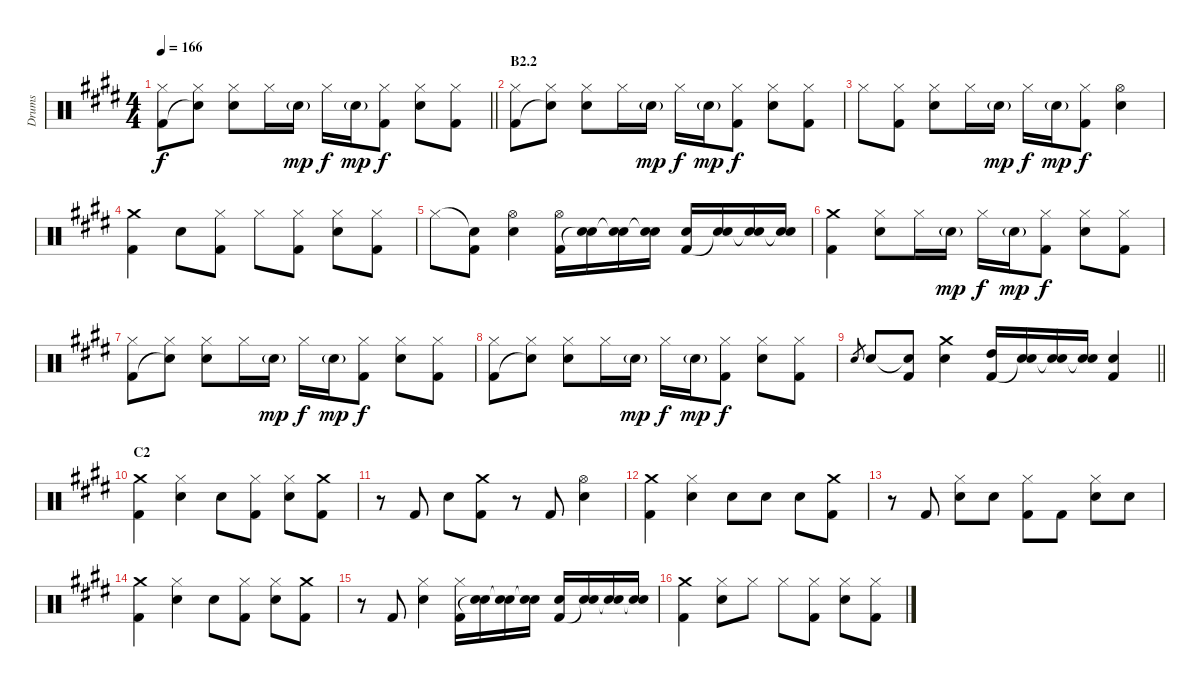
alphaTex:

\track ("Drums" "Drums") {instrument percussion}
\staff {score}
\articulation defaults
\ts (4 4)
\tempo 166
\clef neutral
\barLineRight lightlight
\ks e
("Hi-Hat (closed)" "Kick (hit) 2").8{dy f} ("Hi-Hat (closed)" "Snare (hit)"{t}).8 ("Hi-Hat (closed)" "Snare (hit) 2").8 "Hi-Hat (closed)".16 "Snare (hit) 2"{g}.16{dy mp} "Hi-Hat (closed)".16{dy f} "Snare (hit) 2"{g}.16{dy mp} ("Hi-Hat (closed)" "Kick (hit) 2").8{dy f} ("Hi-Hat (closed)" "Snare (hit) 2").8 ("Hi-Hat (closed)" "Kick (hit) 2").8 |
\section ("" "B2.2")
("Hi-Hat (closed)" "Kick (hit) 2").8 ("Hi-Hat (closed)" "Snare (hit)"{t}).8 ("Hi-Hat (closed)" "Snare (hit) 2").8 "Hi-Hat (closed)".16 "Snare (hit) 2"{g}.16{dy mp} "Hi-Hat (closed)".16{dy f} "Snare (hit) 2"{g}.16{dy mp} ("Hi-Hat (closed)" "Kick (hit) 2").8{dy f} ("Hi-Hat (closed)" "Snare (hit) 2").8 ("Hi-Hat (closed)" "Kick (hit) 2").8 |
"Hi-Hat (closed)".8 ("Hi-Hat (closed)" "Kick (hit) 2").8 ("Hi-Hat (closed)" "Snare (hit) 2").8 "Hi-Hat (closed)".16 "Snare (hit) 2"{g}.16{dy mp} "Hi-Hat (closed)".16{dy f} "Snare (hit) 2"{g}.16{dy mp} ("Hi-Hat (closed)" "Kick (hit) 2").8{dy f} ("Hi-Hat (open)" "Snare (hit) 2").4 |
("Crash medium (hit)" "Kick (hit) 2").4 "Snare (hit) 2".8 ("Hi-Hat (closed)" "Kick (hit) 2").8 "Hi-Hat (closed)".8 ("Hi-Hat (closed)" "Kick (hit) 2").8 ("Hi-Hat (closed)" "Snare (hit) 2").8 ("Hi-Hat (closed)" "Kick (hit) 2").8 |
"Hi-Hat (closed)".8 ("Snare (hit)"{t} "Kick (hit) 2").8 ("Hi-Hat (open)" "Snare (hit) 2").4 ("Hi-Hat (open)" "Kick (hit) 2").16 ("Snare (hit) 2" "Snare (hit)"{t}).16 ("Snare (hit) 2" "Snare (hit)"{t}).16 ("Snare (hit) 2" "Snare (hit)"{t}).16 ("Snare (hit) 2" "Kick (hit) 2").16 ("Snare (hit) 2" "Snare (hit)"{t}).16 ("Snare (hit) 2" "Snare (hit)"{t}).16 ("Snare (hit) 2" "Snare (hit)"{t}).16 |
("Crash medium (hit)" "Kick (hit) 2").4 ("Hi-Hat (closed)" "Snare (hit) 2").8 "Hi-Hat (closed)".16 "Snare (hit) 2"{g}.16{dy mp} "Hi-Hat (closed)".16{dy f} "Snare (hit) 2"{g}.16{dy mp} ("Hi-Hat (closed)" "Kick (hit) 2").8{dy f} ("Hi-Hat (closed)" "Snare (hit) 2").8 ("Hi-Hat (closed)" "Kick (hit) 2").8 |
("Hi-Hat (closed)" "Kick (hit) 2").8 ("Hi-Hat (closed)" "Snare (hit)"{t}).8 ("Hi-Hat (closed)" "Snare (hit) 2").8 "Hi-Hat (closed)".16 "Snare (hit) 2"{g}.16{dy mp} "Hi-Hat (closed)".16{dy f} "Snare (hit) 2"{g}.16{dy mp} ("Hi-Hat (closed)" "Kick (hit) 2").8{dy f} ("Hi-Hat (closed)" "Snare (hit) 2").8 ("Hi-Hat (closed)" "Kick (hit) 2").8 |
("Hi-Hat (closed)" "Kick (hit) 2").8 ("Hi-Hat (closed)" "Snare (hit)"{t}).8 ("Hi-Hat (closed)" "Snare (hit) 2").8 "Hi-Hat (closed)".16 "Snare (hit) 2"{g}.16{dy mp} "Hi-Hat (closed)".16{dy f} "Snare (hit) 2"{g}.16{dy mp} ("Hi-Hat (closed)" "Kick (hit) 2").8{dy f} ("Hi-Hat (closed)" "Snare (hit) 2").8 ("Hi-Hat (closed)" "Kick (hit) 2").8 |
\barLineRight lightlight "Snare (hit) 2".8{gr} "Snare (hit) 2".8
("Snare (hit)"{t} "Kick (hit) 2").8 ("Crash medium (hit)" "Snare (hit) 2").4 ("High Tom (hit)" "Kick (hit) 2").16 ("Snare (hit) 2" "Snare (hit)"{t}).16 ("Snare (hit) 2" "Snare (hit)"{t}).16 ("Snare (hit) 2" "Snare (hit)"{t}).16 ("Snare (hit) 2" "Kick (hit) 2").4 |
\section ("" "C2")
("Crash medium (hit)" "Kick (hit) 2").4 ("Hi-Hat (closed)" "Snare (hit) 2").4 "Snare (hit) 2".8 ("Hi-Hat (closed)" "Kick (hit) 2").8 ("Hi-Hat (closed)" "Snare (hit) 2").8 ("Crash medium (hit)" "Kick (hit) 2").8 |
r.8 "Kick (hit) 2".8 "Snare (hit) 2".8 ("Crash medium (hit)" "Kick (hit) 2").8 r.8 "Kick (hit) 2".8 ("Hi-Hat (open)" "Snare (hit) 2").4 |
("Crash medium (hit)" "Kick (hit) 2").4 ("Hi-Hat (closed)" "Snare (hit) 2").4 "Snare (hit) 2".8 "Snare (hit) 2".8 "Snare (hit) 2".8 ("Crash medium (hit)" "Kick (hit) 2").8 |
r.8 "Kick (hit) 2".8 ("Hi-Hat (closed)" "Snare (hit) 2").8 "Snare (hit) 2".8 ("Hi-Hat (closed)" "Kick (hit) 2").8 "Kick (hit) 2".8 ("Hi-Hat (closed)" "Snare (hit) 2").8 "Snare (hit) 2".8 |
("Crash medium (hit)" "Kick (hit) 2").4 ("Hi-Hat (closed)" "Snare (hit) 2").4 "Snare (hit) 2".8 ("Hi-Hat (closed)" "Kick (hit) 2").8 ("Hi-Hat (closed)" "Snare (hit) 2").8 ("Crash medium (hit)" "Kick (hit) 2").8 |
r.8 "Kick (hit) 2".8 ("Hi-Hat (closed)" "Snare (hit) 2").4 ("Hi-Hat (closed)" "Kick (hit) 2").16 ("Snare (hit) 2" "Snare (hit)"{t}).16 ("Snare (hit) 2" "Snare (hit)"{t}).16 ("Snare (hit) 2" "Snare (hit)"{t}).16 ("Snare (hit) 2" "Kick (hit) 2").16 ("Snare (hit) 2" "Snare (hit)"{t}).16 ("Snare (hit) 2" "Snare (hit)"{t}).16 ("Snare (hit) 2" "Snare (hit)"{t}).16 |
("Crash medium (hit)" "Kick (hit) 2").4 ("Hi-Hat (closed)" "Snare (hit) 2").8 "Hi-Hat (closed)".8 "Hi-Hat (closed)".8 ("Hi-Hat (closed)" "Kick (hit) 2").8 ("Hi-Hat (closed)" "Snare (hit) 2").8 ("Hi-Hat (closed)" "Kick (hit) 2").8
